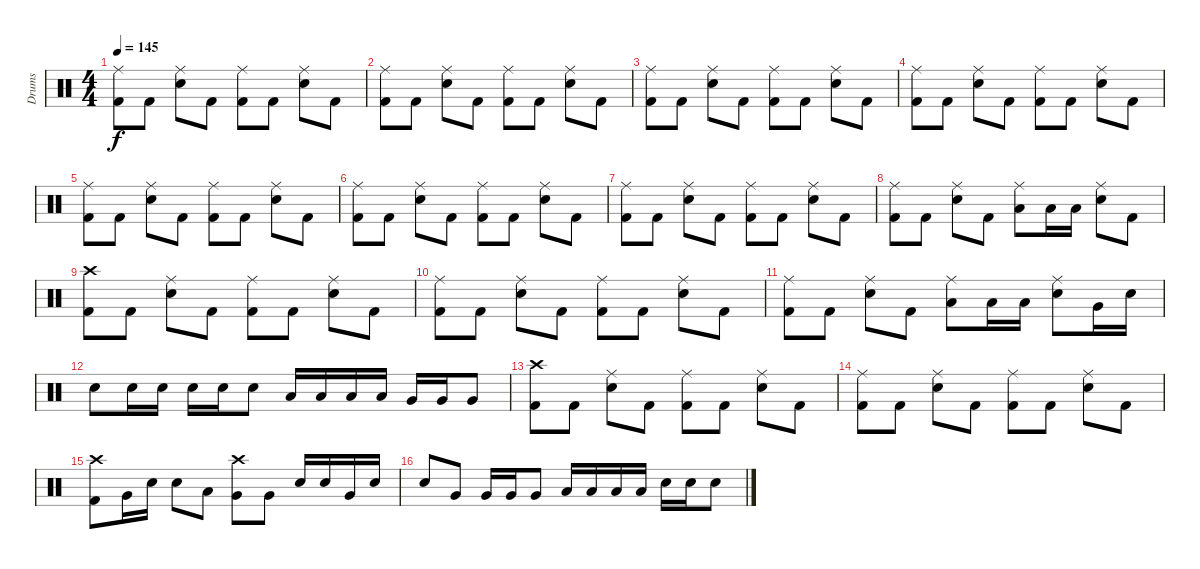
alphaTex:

\track ("Drums" "Drums") {instrument percussion}
\staff {score}
\articulation defaults
\ts (4 4)
\tempo 145
\clef neutral
\ks c
("Ride (middle)" "Kick (hit) 2").8{dy f} "Kick (hit) 2".8 ("Ride (middle)" "Snare (hit) 2").8 "Kick (hit) 2".8 ("Ride (middle)" "Kick (hit) 2").8 "Kick (hit) 2".8 ("Ride (middle)" "Snare (hit) 2").8 "Kick (hit) 2".8 |
("Ride (middle)" "Kick (hit) 2").8 "Kick (hit) 2".8 ("Ride (middle)" "Snare (hit) 2").8 "Kick (hit) 2".8 ("Ride (middle)" "Kick (hit) 2").8 "Kick (hit) 2".8 ("Ride (middle)" "Snare (hit) 2").8 "Kick (hit) 2".8 |
("Ride (middle)" "Kick (hit) 2").8 "Kick (hit) 2".8 ("Ride (middle)" "Snare (hit) 2").8 "Kick (hit) 2".8 ("Ride (middle)" "Kick (hit) 2").8 "Kick (hit) 2".8 ("Ride (middle)" "Snare (hit) 2").8 "Kick (hit) 2".8 |
("Ride (middle)" "Kick (hit) 2").8 "Kick (hit) 2".8 ("Ride (middle)" "Snare (hit) 2").8 "Kick (hit) 2".8 ("Ride (middle)" "Kick (hit) 2").8 "Kick (hit) 2".8 ("Ride (middle)" "Snare (hit) 2").8 "Kick (hit) 2".8 |
("Ride (middle)" "Kick (hit) 2").8 "Kick (hit) 2".8 ("Ride (middle)" "Snare (hit) 2").8 "Kick (hit) 2".8 ("Ride (middle)" "Kick (hit) 2").8 "Kick (hit) 2".8 ("Ride (middle)" "Snare (hit) 2").8 "Kick (hit) 2".8 |
("Ride (middle)" "Kick (hit) 2").8 "Kick (hit) 2".8 ("Ride (middle)" "Snare (hit) 2").8 "Kick (hit) 2".8 ("Ride (middle)" "Kick (hit) 2").8 "Kick (hit) 2".8 ("Ride (middle)" "Snare (hit) 2").8 "Kick (hit) 2".8 |
("Ride (middle)" "Kick (hit) 2").8 "Kick (hit) 2".8 ("Ride (middle)" "Snare (hit) 2").8 "Kick (hit) 2".8 ("Ride (middle)" "Kick (hit) 2").8 "Kick (hit) 2".8 ("Ride (middle)" "Snare (hit) 2").8 "Kick (hit) 2".8 |
("Ride (middle)" "Kick (hit) 2").8 "Kick (hit) 2".8 ("Ride (middle)" "Snare (hit) 2").8 "Kick (hit) 2".8 ("Ride (middle)" "Low Tom (hit)").8 "Low Tom (hit)".16 "Low Tom (hit)".16 ("Ride (middle)" "Snare (hit) 2").8 "Kick (hit) 2".8 |
("Crash high (hit)" "Kick (hit) 2").8 "Kick (hit) 2".8 ("Ride (middle)" "Snare (hit) 2").8 "Kick (hit) 2".8 ("Ride (middle)" "Kick (hit) 2").8 "Kick (hit) 2".8 ("Ride (middle)" "Snare (hit) 2").8 "Kick (hit) 2".8 |
("Ride (middle)" "Kick (hit) 2").8 "Kick (hit) 2".8 ("Ride (middle)" "Snare (hit) 2").8 "Kick (hit) 2".8 ("Ride (middle)" "Kick (hit) 2").8 "Kick (hit) 2".8 ("Ride (middle)" "Snare (hit) 2").8 "Kick (hit) 2".8 |
("Ride (middle)" "Kick (hit) 2").8 "Kick (hit) 2".8 ("Ride (middle)" "Snare (hit) 2").8 "Kick (hit) 2".8 ("Ride (middle)" "Low Tom (hit)").8 "Low Tom (hit)".16 "Low Tom (hit)".16 ("Ride (middle)" "Snare (hit) 2").8 "Very Low Tom (hit)".16 "Snare (hit) 2".16 |
"Snare (hit) 2".8 "Snare (hit) 2".16 "Snare (hit) 2".16 "Snare (hit) 2".16 "Snare (hit) 2".16 "Snare (hit) 2".8 "Low Tom (hit)".16 "Low Tom (hit)".16 "Low Tom (hit)".16 "Low Tom (hit)".16 "Very Low Tom (hit)".16 "Very Low Tom (hit)".16 "Very Low Tom (hit)".8 |
("Crash high (hit)" "Kick (hit) 2").8 "Kick (hit) 2".8 ("Ride (middle)" "Snare (hit) 2").8 "Kick (hit) 2".8 ("Ride (middle)" "Kick (hit) 2").8 "Kick (hit) 2".8 ("Ride (middle)" "Snare (hit) 2").8 "Kick (hit) 2".8 |
("Ride (middle)" "Kick (hit) 2").8 "Kick (hit) 2".8 ("Ride (middle)" "Snare (hit) 2").8 "Kick (hit) 2".8 ("Ride (middle)" "Kick (hit) 2").8 "Kick (hit) 2".8 ("Ride (middle)" "Snare (hit) 2").8 "Kick (hit) 2".8 |
("Crash high (hit)" "Kick (hit) 2").8 "Very Low Tom (hit)".16 "Snare (hit) 2".16 "Snare (hit) 2".8 "Low Tom (hit)".8 ("Crash high (hit)" "Very Low Tom (hit)").8 "Very Low Tom (hit)".8 "Snare (hit) 2".16 "Snare (hit) 2".16 "Very Low Tom (hit)".16 "Snare (hit) 2".16 |
"Snare (hit) 2".8 "Very Low Tom (hit)".8 "Very Low Tom (hit)".16 "Very Low Tom (hit)".16 "Very Low Tom (hit)".8 "Low Tom (hit)".16 "Low Tom (hit)".16 "Low Tom (hit)".16 "Low Tom (hit)".16 "Snare (hit) 2".16 "Snare (hit) 2".16 "Snare (hit) 2".8
